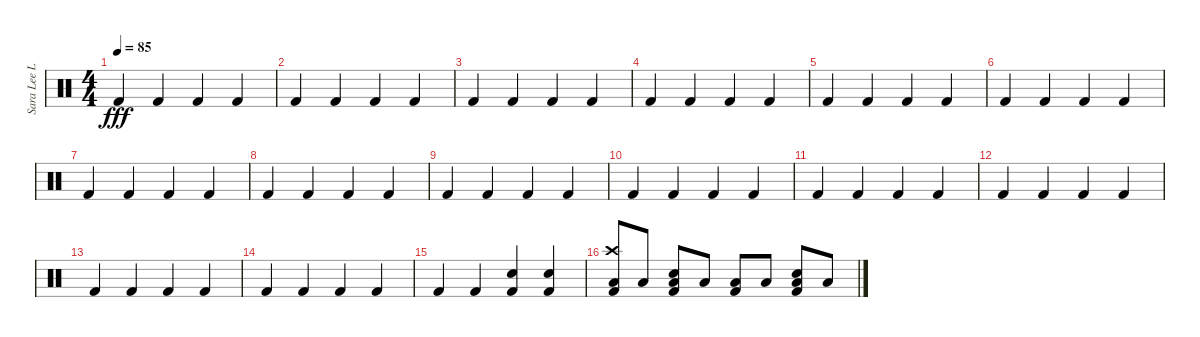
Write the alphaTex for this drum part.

\track ("Sara Lee Lucas" "Sara Lee L") {instrument percussion}
\staff {score}
\articulation defaults
\ts (4 4)
\tempo 85
\clef neutral
\ks c "Kick (hit) 2".4{dy fff} "Kick (hit) 2".4 "Kick (hit) 2".4 "Kick (hit) 2".4
|
"Kick (hit) 2".4 "Kick (hit) 2".4 "Kick (hit) 2".4 "Kick (hit) 2".4 |
"Kick (hit) 2".4 "Kick (hit) 2".4 "Kick (hit) 2".4 "Kick (hit) 2".4 |
"Kick (hit) 2".4 "Kick (hit) 2".4 "Kick (hit) 2".4 "Kick (hit) 2".4 |
"Kick (hit) 2".4 "Kick (hit) 2".4 "Kick (hit) 2".4 "Kick (hit) 2".4 |
"Kick (hit) 2".4 "Kick (hit) 2".4 "Kick (hit) 2".4 "Kick (hit) 2".4 |
"Kick (hit) 2".4 "Kick (hit) 2".4 "Kick (hit) 2".4 "Kick (hit) 2".4 |
"Kick (hit) 2".4 "Kick (hit) 2".4 "Kick (hit) 2".4 "Kick (hit) 2".4 |
"Kick (hit) 2".4 "Kick (hit) 2".4 "Kick (hit) 2".4 "Kick (hit) 2".4 |
"Kick (hit) 2".4 "Kick (hit) 2".4 "Kick (hit) 2".4 "Kick (hit) 2".4 |
"Kick (hit) 2".4 "Kick (hit) 2".4 "Kick (hit) 2".4 "Kick (hit) 2".4 |
"Kick (hit) 2".4 "Kick (hit) 2".4 "Kick (hit) 2".4 "Kick (hit) 2".4 |
"Kick (hit) 2".4 "Kick (hit) 2".4 "Kick (hit) 2".4 "Kick (hit) 2".4 |
"Kick (hit) 2".4 "Kick (hit) 2".4 "Kick (hit) 2".4 "Kick (hit) 2".4 |
"Kick (hit) 2".4 "Kick (hit) 2".4 ("Snare (hit) 2" "Kick (hit) 2").4 ("Snare (hit) 2" "Kick (hit) 2").4 |
("Crash high (hit)" "Low Tom (hit)" "Kick (hit) 2").8 "Low Tom (hit)".8 ("Low Tom (hit)" "Snare (hit) 2" "Kick (hit) 2").8 "Low Tom (hit)".8 ("Low Tom (hit)" "Kick (hit) 2").8 "Low Tom (hit)".8 ("Low Tom (hit)" "Snare (hit) 2" "Kick (hit) 2").8 "Low Tom (hit)".8
